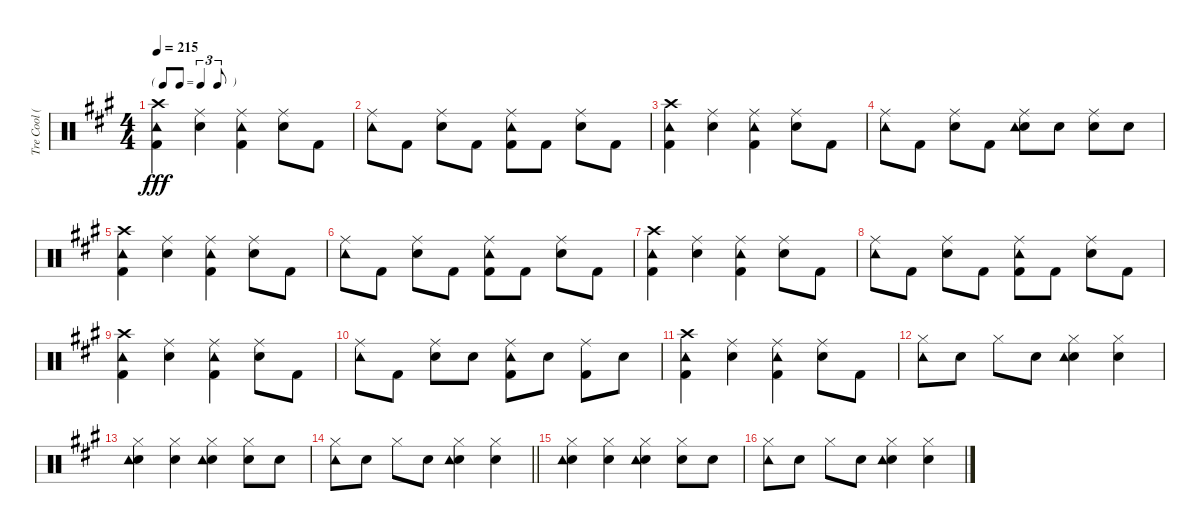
\track ("Tre Cool (Drums)" "Tre Cool (") {instrument percussion}
\staff {score}
\articulation defaults
\ts (4 4)
\tf triplet8th
\tempo 215
\clef neutral
\ks a
("Crash high (hit)" "Kick (hit) 2" "Tambourine (hit)").4{dy fff} ("Ride (middle)" "Electric Snare (hit)").4 ("Ride (middle)" "Kick (hit) 2" "Tambourine (hit)").4 ("Ride (middle)" "Electric Snare (hit)").8 "Kick (hit) 2".8 |
("Ride (middle)" "Tambourine (hit)").8 "Kick (hit) 2".8 ("Ride (middle)" "Electric Snare (hit)").8 "Kick (hit) 2".8 ("Ride (middle)" "Kick (hit) 2" "Tambourine (hit)").8 "Kick (hit) 2".8 ("Ride (middle)" "Electric Snare (hit)").8 "Kick (hit) 2".8 |
("Crash high (hit)" "Kick (hit) 2" "Tambourine (hit)").4 ("Ride (middle)" "Electric Snare (hit)").4 ("Ride (middle)" "Kick (hit) 2" "Tambourine (hit)").4 ("Ride (middle)" "Electric Snare (hit)").8 "Kick (hit) 2".8 |
("Ride (middle)" "Tambourine (hit)").8 "Kick (hit) 2".8 ("Ride (middle)" "Electric Snare (hit)").8 "Kick (hit) 2".8 ("Ride (middle)" "Electric Snare (hit)" "Tambourine (hit)").8 "Electric Snare (hit)".8 ("Ride (middle)" "Electric Snare (hit)").8 "Electric Snare (hit)".8 |
("Crash high (hit)" "Kick (hit) 2" "Tambourine (hit)").4 ("Ride (middle)" "Electric Snare (hit)").4 ("Ride (middle)" "Kick (hit) 2" "Tambourine (hit)").4 ("Ride (middle)" "Electric Snare (hit)").8 "Kick (hit) 2".8 |
("Ride (middle)" "Tambourine (hit)").8 "Kick (hit) 2".8 ("Ride (middle)" "Electric Snare (hit)").8 "Kick (hit) 2".8 ("Ride (middle)" "Kick (hit) 2" "Tambourine (hit)").8 "Kick (hit) 2".8 ("Ride (middle)" "Electric Snare (hit)").8 "Kick (hit) 2".8 |
("Crash high (hit)" "Kick (hit) 2" "Tambourine (hit)").4 ("Ride (middle)" "Electric Snare (hit)").4 ("Ride (middle)" "Kick (hit) 2" "Tambourine (hit)").4 ("Ride (middle)" "Electric Snare (hit)").8 "Kick (hit) 2".8 |
("Ride (middle)" "Tambourine (hit)").8 "Kick (hit) 2".8 ("Ride (middle)" "Electric Snare (hit)").8 "Kick (hit) 2".8 ("Ride (middle)" "Kick (hit) 2" "Tambourine (hit)").8 "Kick (hit) 2".8 ("Ride (middle)" "Electric Snare (hit)").8 "Kick (hit) 2".8 |
("Crash high (hit)" "Kick (hit) 2" "Tambourine (hit)").4 ("Ride (middle)" "Electric Snare (hit)").4 ("Ride (middle)" "Kick (hit) 2" "Tambourine (hit)").4 ("Ride (middle)" "Electric Snare (hit)").8 "Kick (hit) 2".8 |
("Ride (middle)" "Tambourine (hit)").8 "Kick (hit) 2".8 ("Ride (middle)" "Electric Snare (hit)").8 "Electric Snare (hit)".8 ("Ride (middle)" "Kick (hit) 2" "Tambourine (hit)").8 "Electric Snare (hit)".8 ("Ride (middle)" "Kick (hit) 2").8 "Electric Snare (hit)".8 |
("Crash high (hit)" "Kick (hit) 2" "Tambourine (hit)").4 ("Ride (middle)" "Electric Snare (hit)").4 ("Ride (middle)" "Kick (hit) 2" "Tambourine (hit)").4 ("Ride (middle)" "Electric Snare (hit)").8 "Kick (hit) 2".8 |
("Hi-Hat (closed)" "Tambourine (hit)").8 "Electric Snare (hit)".8 "Hi-Hat (closed)".8 "Electric Snare (hit)".8 ("Hi-Hat (closed)" "Electric Snare (hit)" "Tambourine (hit)").4 ("Hi-Hat (closed)" "Electric Snare (hit)").4 |
("Hi-Hat (closed)" "Electric Snare (hit)" "Tambourine (hit)").4 ("Hi-Hat (closed)" "Electric Snare (hit)").4 ("Hi-Hat (closed)" "Electric Snare (hit)" "Tambourine (hit)").4 ("Hi-Hat (closed)" "Electric Snare (hit)").8 "Electric Snare (hit)".8 |
\barLineRight lightlight
("Hi-Hat (closed)" "Tambourine (hit)").8 "Electric Snare (hit)".8 "Hi-Hat (closed)".8 "Electric Snare (hit)".8 ("Hi-Hat (closed)" "Electric Snare (hit)" "Tambourine (hit)").4 ("Hi-Hat (closed)" "Electric Snare (hit)").4 |
("Hi-Hat (closed)" "Electric Snare (hit)" "Tambourine (hit)").4 ("Hi-Hat (closed)" "Electric Snare (hit)").4 ("Hi-Hat (closed)" "Electric Snare (hit)" "Tambourine (hit)").4 ("Hi-Hat (closed)" "Electric Snare (hit)").8 "Electric Snare (hit)".8 |
("Hi-Hat (closed)" "Tambourine (hit)").8 "Electric Snare (hit)".8 "Hi-Hat (closed)".8 "Electric Snare (hit)".8 ("Hi-Hat (closed)" "Electric Snare (hit)" "Tambourine (hit)").4 ("Hi-Hat (closed)" "Electric Snare (hit)").4
